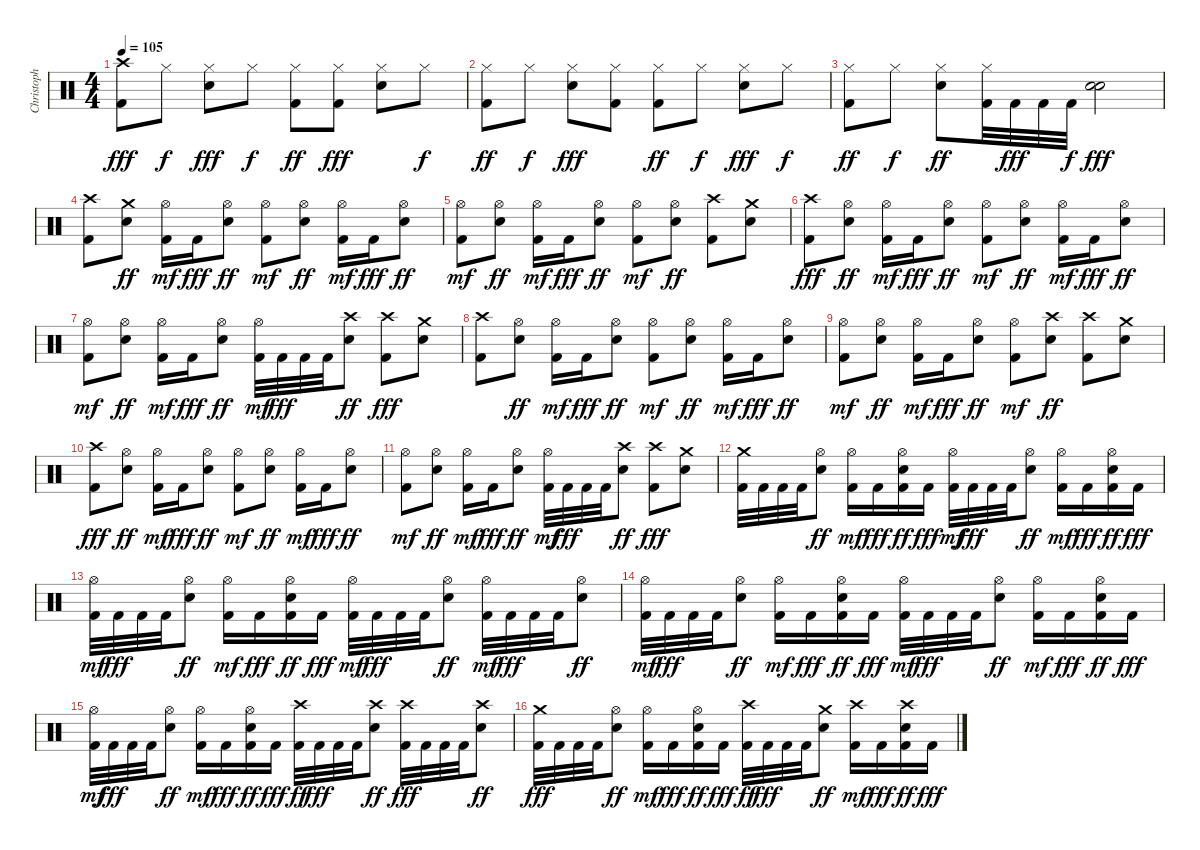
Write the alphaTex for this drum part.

\track ("Christoph \"Doom\" Schneider" "Christoph ") {instrument percussion}
\staff {score}
\articulation defaults
\ts (4 4)
\tempo 105
\clef neutral
\ks c
("Kick (hit) 2" "Crash high (hit)").8{dy fff} "Hi-Hat (closed)".8{dy f} ("Hi-Hat (closed)" "Electric Snare (hit)").8{dy fff} "Hi-Hat (closed)".8{dy f} ("Kick (hit) 2" "Hi-Hat (closed)").8{dy ff} ("Kick (hit) 2" "Hi-Hat (closed)").8{dy fff} ("Hi-Hat (closed)" "Electric Snare (hit)").8 "Hi-Hat (closed)".8{dy f} |
("Kick (hit) 2" "Hi-Hat (closed)").8{dy ff} "Hi-Hat (closed)".8{dy f} ("Hi-Hat (closed)" "Electric Snare (hit)").8{dy fff} ("Kick (hit) 2" "Hi-Hat (closed)").8 ("Kick (hit) 2" "Hi-Hat (closed)").8{dy ff} "Hi-Hat (closed)".8{dy f} ("Hi-Hat (closed)" "Electric Snare (hit)").8{dy fff} "Hi-Hat (closed)".8{dy f} |
("Kick (hit) 2" "Hi-Hat (closed)").8{dy ff} "Hi-Hat (closed)".8{dy f} ("Hi-Hat (closed)" "Electric Snare (hit)").8{dy ff} ("Kick (hit) 2" "Hi-Hat (closed)").32 "Kick (hit) 2".32{dy fff} "Kick (hit) 2".32 "Kick (hit) 2".32{dy f} ("Electric Snare (hit)" "Electric Snare (hit)").2{dy fff} |
("Kick (hit) 2" "Crash high (hit)").8 ("Electric Snare (hit)" "Crash medium (hit)").8{dy ff} ("Kick (hit) 2" "Hi-Hat (open)").16{dy mf} "Kick (hit) 2".16{dy fff} ("Hi-Hat (open)" "Electric Snare (hit)").8{dy ff} ("Kick (hit) 2" "Hi-Hat (open)").8{dy mf} ("Hi-Hat (open)" "Electric Snare (hit)").8{dy ff} ("Kick (hit) 2" "Hi-Hat (open)").16{dy mf} "Kick (hit) 2".16{dy fff} ("Hi-Hat (open)" "Electric Snare (hit)").8{dy ff} |
("Kick (hit) 2" "Hi-Hat (open)").8{dy mf} ("Hi-Hat (open)" "Electric Snare (hit)").8{dy ff} ("Kick (hit) 2" "Hi-Hat (open)").16{dy mf} "Kick (hit) 2".16{dy fff} ("Hi-Hat (open)" "Electric Snare (hit)").8{dy ff} ("Kick (hit) 2" "Hi-Hat (open)").8{dy mf} ("Hi-Hat (open)" "Electric Snare (hit)").8{dy ff} ("Kick (hit) 2" "Crash high (hit)").8 ("Electric Snare (hit)" "Crash medium (hit)").8 |
("Kick (hit) 2" "Crash high (hit)").8{dy fff} ("Hi-Hat (open)" "Electric Snare (hit)").8{dy ff} ("Kick (hit) 2" "Hi-Hat (open)").16{dy mf} "Kick (hit) 2".16{dy fff} ("Hi-Hat (open)" "Electric Snare (hit)").8{dy ff} ("Kick (hit) 2" "Hi-Hat (open)").8{dy mf} ("Hi-Hat (open)" "Electric Snare (hit)").8{dy ff} ("Kick (hit) 2" "Hi-Hat (open)").16{dy mf} "Kick (hit) 2".16{dy fff} ("Hi-Hat (open)" "Electric Snare (hit)").8{dy ff} |
("Kick (hit) 2" "Hi-Hat (open)").8{dy mf} ("Hi-Hat (open)" "Electric Snare (hit)").8{dy ff} ("Kick (hit) 2" "Hi-Hat (open)").16{dy mf} "Kick (hit) 2".16{dy fff} ("Hi-Hat (open)" "Electric Snare (hit)").8{dy ff} ("Kick (hit) 2" "Hi-Hat (open)").32{dy mf} "Kick (hit) 2".32{dy fff} "Kick (hit) 2".32 "Kick (hit) 2".32 ("Crash high (hit)" "Electric Snare (hit)").8{dy ff} ("Kick (hit) 2" "Crash high (hit)").8{dy fff} ("Electric Snare (hit)" "Crash medium (hit)").8 |
("Kick (hit) 2" "Crash high (hit)").8 ("Hi-Hat (open)" "Electric Snare (hit)").8{dy ff} ("Kick (hit) 2" "Hi-Hat (open)").16{dy mf} "Kick (hit) 2".16{dy fff} ("Hi-Hat (open)" "Electric Snare (hit)").8{dy ff} ("Kick (hit) 2" "Hi-Hat (open)").8{dy mf} ("Hi-Hat (open)" "Electric Snare (hit)").8{dy ff} ("Kick (hit) 2" "Hi-Hat (open)").16{dy mf} "Kick (hit) 2".16{dy fff} ("Hi-Hat (open)" "Electric Snare (hit)").8{dy ff} |
("Kick (hit) 2" "Hi-Hat (open)").8{dy mf} ("Hi-Hat (open)" "Electric Snare (hit)").8{dy ff} ("Kick (hit) 2" "Hi-Hat (open)").16{dy mf} "Kick (hit) 2".16{dy fff} ("Hi-Hat (open)" "Electric Snare (hit)").8{dy ff} ("Kick (hit) 2" "Hi-Hat (open)").8{dy mf} ("Crash high (hit)" "Electric Snare (hit)").8{dy ff} ("Kick (hit) 2" "Crash high (hit)").8 ("Electric Snare (hit)" "Crash medium (hit)").8 |
("Kick (hit) 2" "Crash high (hit)").8{dy fff} ("Hi-Hat (open)" "Electric Snare (hit)").8{dy ff} ("Kick (hit) 2" "Hi-Hat (open)").16{dy mf} "Kick (hit) 2".16{dy fff} ("Hi-Hat (open)" "Electric Snare (hit)").8{dy ff} ("Kick (hit) 2" "Hi-Hat (open)").8{dy mf} ("Hi-Hat (open)" "Electric Snare (hit)").8{dy ff} ("Kick (hit) 2" "Hi-Hat (open)").16{dy mf} "Kick (hit) 2".16{dy fff} ("Hi-Hat (open)" "Electric Snare (hit)").8{dy ff} |
("Kick (hit) 2" "Hi-Hat (open)").8{dy mf} ("Hi-Hat (open)" "Electric Snare (hit)").8{dy ff} ("Kick (hit) 2" "Hi-Hat (open)").16{dy mf} "Kick (hit) 2".16{dy fff} ("Hi-Hat (open)" "Electric Snare (hit)").8{dy ff} ("Kick (hit) 2" "Hi-Hat (open)").32{dy mf} "Kick (hit) 2".32{dy fff} "Kick (hit) 2".32 "Kick (hit) 2".32 ("Crash high (hit)" "Electric Snare (hit)").8{dy ff} ("Kick (hit) 2" "Crash high (hit)").8{dy fff} ("Electric Snare (hit)" "Crash medium (hit)").8 |
("Kick (hit) 2" "Crash medium (hit)").32 "Kick (hit) 2".32 "Kick (hit) 2".32 "Kick (hit) 2".32 ("Hi-Hat (open)" "Electric Snare (hit)").8{dy ff} ("Kick (hit) 2" "Hi-Hat (open)").16{dy mf} "Kick (hit) 2".16{dy fff} ("Kick (hit) 2" "Hi-Hat (open)" "Electric Snare (hit)").16{dy ff} "Kick (hit) 2".16{dy fff} ("Kick (hit) 2" "Hi-Hat (open)").32{dy mf} "Kick (hit) 2".32{dy fff} "Kick (hit) 2".32 "Kick (hit) 2".32 ("Hi-Hat (open)" "Electric Snare (hit)").8{dy ff} ("Kick (hit) 2" "Hi-Hat (open)").16{dy mf} "Kick (hit) 2".16{dy fff} ("Kick (hit) 2" "Hi-Hat (open)" "Electric Snare (hit)").16{dy ff} "Kick (hit) 2".16{dy fff} |
("Kick (hit) 2" "Hi-Hat (open)").32{dy mf} "Kick (hit) 2".32{dy fff} "Kick (hit) 2".32 "Kick (hit) 2".32 ("Hi-Hat (open)" "Electric Snare (hit)").8{dy ff} ("Kick (hit) 2" "Hi-Hat (open)").16{dy mf} "Kick (hit) 2".16{dy fff} ("Kick (hit) 2" "Hi-Hat (open)" "Electric Snare (hit)").16{dy ff} "Kick (hit) 2".16{dy fff} ("Kick (hit) 2" "Hi-Hat (open)").32{dy mf} "Kick (hit) 2".32{dy fff} "Kick (hit) 2".32 "Kick (hit) 2".32 ("Hi-Hat (open)" "Electric Snare (hit)").8{dy ff} ("Kick (hit) 2" "Hi-Hat (open)").32{dy mf} "Kick (hit) 2".32{dy fff} "Kick (hit) 2".32 "Kick (hit) 2".32 ("Hi-Hat (open)" "Electric Snare (hit)").8{dy ff} |
("Kick (hit) 2" "Hi-Hat (open)").32{dy mf} "Kick (hit) 2".32{dy fff} "Kick (hit) 2".32 "Kick (hit) 2".32 ("Hi-Hat (open)" "Electric Snare (hit)").8{dy ff} ("Kick (hit) 2" "Hi-Hat (open)").16{dy mf} "Kick (hit) 2".16{dy fff} ("Kick (hit) 2" "Hi-Hat (open)" "Electric Snare (hit)").16{dy ff} "Kick (hit) 2".16{dy fff} ("Kick (hit) 2" "Hi-Hat (open)").32{dy mf} "Kick (hit) 2".32{dy fff} "Kick (hit) 2".32 "Kick (hit) 2".32 ("Hi-Hat (open)" "Electric Snare (hit)").8{dy ff} ("Kick (hit) 2" "Hi-Hat (open)").16{dy mf} "Kick (hit) 2".16{dy fff} ("Kick (hit) 2" "Hi-Hat (open)" "Electric Snare (hit)").16{dy ff} "Kick (hit) 2".16{dy fff} |
("Kick (hit) 2" "Hi-Hat (open)").32{dy mf} "Kick (hit) 2".32{dy fff} "Kick (hit) 2".32 "Kick (hit) 2".32 ("Hi-Hat (open)" "Electric Snare (hit)").8{dy ff} ("Kick (hit) 2" "Hi-Hat (open)").16{dy mf} "Kick (hit) 2".16{dy fff} ("Kick (hit) 2" "Hi-Hat (open)" "Electric Snare (hit)").16{dy ff} "Kick (hit) 2".16{dy fff} ("Kick (hit) 2" "Crash high (hit)").32{dy ff} "Kick (hit) 2".32{dy fff} "Kick (hit) 2".32 "Kick (hit) 2".32 ("Crash high (hit)" "Electric Snare (hit)").8{dy ff} ("Kick (hit) 2" "Crash high (hit)").32{dy fff} "Kick (hit) 2".32 "Kick (hit) 2".32 "Kick (hit) 2".32 ("Crash high (hit)" "Electric Snare (hit)").8{dy ff} |
("Kick (hit) 2" "Crash medium (hit)").32{dy fff} "Kick (hit) 2".32 "Kick (hit) 2".32 "Kick (hit) 2".32 ("Hi-Hat (open)" "Electric Snare (hit)").8{dy ff} ("Kick (hit) 2" "Hi-Hat (open)").16{dy mf} "Kick (hit) 2".16{dy fff} ("Kick (hit) 2" "Hi-Hat (open)" "Electric Snare (hit)").16{dy ff} "Kick (hit) 2".16{dy fff} ("Kick (hit) 2" "Crash high (hit)").32{dy ff} "Kick (hit) 2".32{dy fff} "Kick (hit) 2".32 "Kick (hit) 2".32 ("Crash medium (hit)" "Electric Snare (hit)").8{dy ff} ("Kick (hit) 2" "Crash high (hit)").16{dy mf} "Kick (hit) 2".16{dy fff} ("Kick (hit) 2" "Crash high (hit)" "Electric Snare (hit)").16{dy ff} "Kick (hit) 2".16{dy fff}
